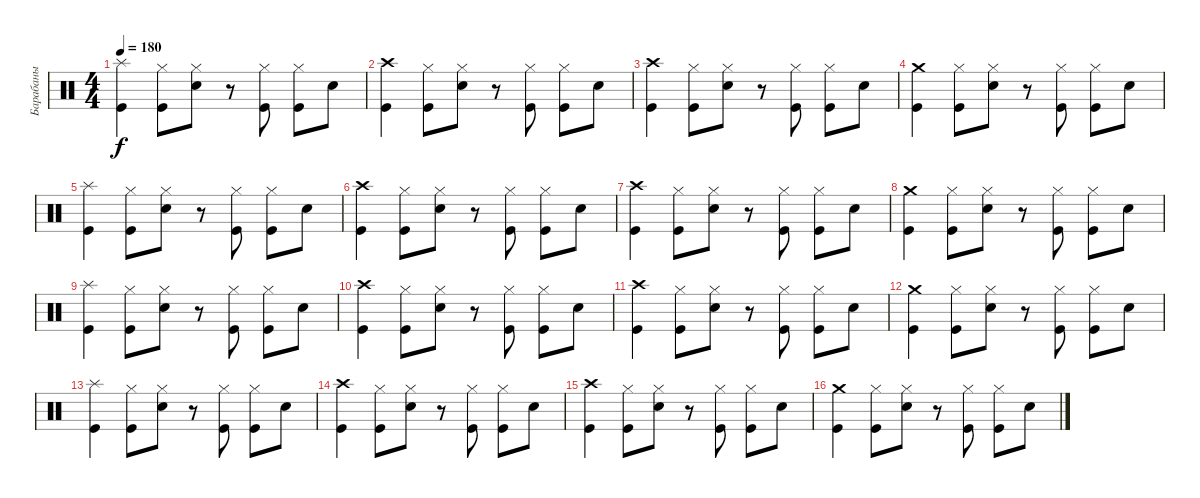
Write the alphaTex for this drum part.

\track ("Барабаны" "Барабаны") {instrument percussion}
\staff {score}
\articulation defaults
\ts (4 4)
\tempo 180
\clef neutral
\ks c
("Splash (hit)" "Kick (hit)").4{dy f} ("Hi-Hat (closed)" "Kick (hit)").8 ("Electric Snare (hit)" "Hi-Hat (closed)").8 r.8 ("Kick (hit)" "Hi-Hat (closed)").8 ("Hi-Hat (closed)" "Kick (hit)").8 "Electric Snare (hit)".8 |
("Kick (hit)" "Crash high (hit)").4 ("Hi-Hat (closed)" "Kick (hit)").8 ("Electric Snare (hit)" "Hi-Hat (closed)").8 r.8 ("Kick (hit)" "Hi-Hat (closed)").8 ("Kick (hit)" "Hi-Hat (closed)").8 "Electric Snare (hit)".8 |
("Crash high (hit)" "Kick (hit)").4 ("Hi-Hat (closed)" "Kick (hit)").8 ("Electric Snare (hit)" "Hi-Hat (closed)").8 r.8 ("Kick (hit)" "Hi-Hat (closed)").8 ("Kick (hit)" "Hi-Hat (closed)").8 "Electric Snare (hit)".8 |
("Crash medium (hit)" "Kick (hit)").4 ("Hi-Hat (closed)" "Kick (hit)").8 ("Electric Snare (hit)" "Hi-Hat (closed)").8 r.8 ("Kick (hit)" "Hi-Hat (closed)").8 ("Hi-Hat (closed)" "Kick (hit)").8 "Electric Snare (hit)".8 |
("Kick (hit)" "Splash (hit)").4 ("Hi-Hat (closed)" "Kick (hit)").8 ("Electric Snare (hit)" "Hi-Hat (closed)").8 r.8 ("Kick (hit)" "Hi-Hat (closed)").8 ("Kick (hit)" "Hi-Hat (closed)").8 "Electric Snare (hit)".8 |
("Kick (hit)" "Crash high (hit)").4 ("Hi-Hat (closed)" "Kick (hit)").8 ("Electric Snare (hit)" "Hi-Hat (closed)").8 r.8 ("Kick (hit)" "Hi-Hat (closed)").8 ("Hi-Hat (closed)" "Kick (hit)").8 "Electric Snare (hit)".8 |
("Crash high (hit)" "Kick (hit)").4 ("Hi-Hat (closed)" "Kick (hit)").8 ("Hi-Hat (closed)" "Electric Snare (hit)").8 r.8 ("Hi-Hat (closed)" "Kick (hit)").8 ("Kick (hit)" "Hi-Hat (closed)").8 "Electric Snare (hit)".8 |
("Crash medium (hit)" "Kick (hit)").4 ("Kick (hit)" "Hi-Hat (closed)").8 ("Hi-Hat (closed)" "Electric Snare (hit)").8 r.8 ("Hi-Hat (closed)" "Kick (hit)").8 ("Hi-Hat (closed)" "Kick (hit)").8 "Electric Snare (hit)".8 |
("Kick (hit)" "Splash (hit)").4 ("Hi-Hat (closed)" "Kick (hit)").8 ("Electric Snare (hit)" "Hi-Hat (closed)").8 r.8 ("Hi-Hat (closed)" "Kick (hit)").8 ("Kick (hit)" "Hi-Hat (closed)").8 "Electric Snare (hit)".8 |
("Crash high (hit)" "Kick (hit)").4 ("Kick (hit)" "Hi-Hat (closed)").8 ("Electric Snare (hit)" "Hi-Hat (closed)").8 r.8 ("Kick (hit)" "Hi-Hat (closed)").8 ("Hi-Hat (closed)" "Kick (hit)").8 "Electric Snare (hit)".8 |
("Kick (hit)" "Crash high (hit)").4 ("Kick (hit)" "Hi-Hat (closed)").8 ("Electric Snare (hit)" "Hi-Hat (closed)").8 r.8 ("Kick (hit)" "Hi-Hat (closed)").8 ("Kick (hit)" "Hi-Hat (closed)").8 "Electric Snare (hit)".8 |
("Crash medium (hit)" "Kick (hit)").4 ("Kick (hit)" "Hi-Hat (closed)").8 ("Electric Snare (hit)" "Hi-Hat (closed)").8 r.8 ("Hi-Hat (closed)" "Kick (hit)").8 ("Kick (hit)" "Hi-Hat (closed)").8 "Electric Snare (hit)".8 |
("Splash (hit)" "Kick (hit)").4 ("Hi-Hat (closed)" "Kick (hit)").8 ("Hi-Hat (closed)" "Electric Snare (hit)").8 r.8 ("Kick (hit)" "Hi-Hat (closed)").8 ("Kick (hit)" "Hi-Hat (closed)").8 "Electric Snare (hit)".8 |
("Kick (hit)" "Crash high (hit)").4 ("Kick (hit)" "Hi-Hat (closed)").8 ("Hi-Hat (closed)" "Electric Snare (hit)").8 r.8 ("Hi-Hat (closed)" "Kick (hit)").8 ("Hi-Hat (closed)" "Kick (hit)").8 "Electric Snare (hit)".8 |
("Crash high (hit)" "Kick (hit)").4 ("Kick (hit)" "Hi-Hat (closed)").8 ("Electric Snare (hit)" "Hi-Hat (closed)").8 r.8 ("Hi-Hat (closed)" "Kick (hit)").8 ("Kick (hit)" "Hi-Hat (closed)").8 "Electric Snare (hit)".8 |
("Kick (hit)" "Crash medium (hit)").4 ("Kick (hit)" "Hi-Hat (closed)").8 ("Electric Snare (hit)" "Hi-Hat (closed)").8 r.8 ("Kick (hit)" "Hi-Hat (closed)").8 ("Kick (hit)" "Hi-Hat (closed)").8 "Electric Snare (hit)".8
